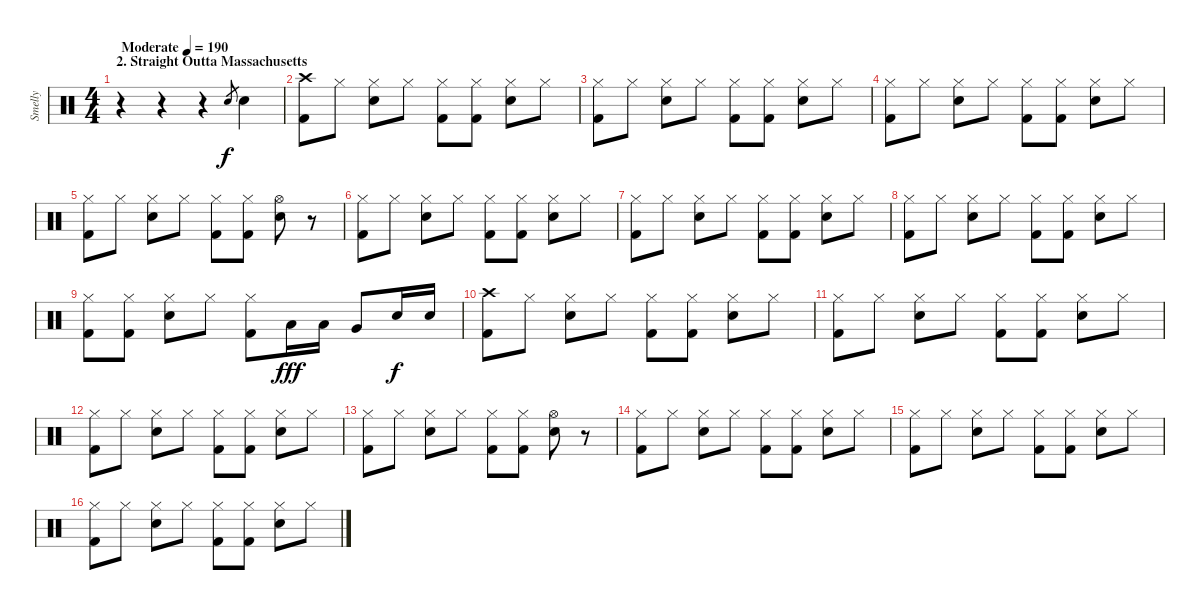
\track ("Smelly" "Smelly") {instrument percussion}
\staff {score}
\articulation defaults
\ts (4 4)
\section ("" "2. Straight Outta Massachusetts")
\tempo (190 "Moderate")
\clef neutral
\ks c
r.4{dy f} r.4 r.4 "Electric Snare (hit)".8{gr} "Electric Snare (hit)".4 |
("Crash high (hit)" "Kick (hit) 2").8 "Hi-Hat (closed)".8 ("Hi-Hat (closed)" "Electric Snare (hit)").8 "Hi-Hat (closed)".8 ("Hi-Hat (closed)" "Kick (hit) 2").8 ("Hi-Hat (closed)" "Kick (hit) 2").8 ("Hi-Hat (closed)" "Electric Snare (hit)").8 "Hi-Hat (closed)".8 |
("Hi-Hat (closed)" "Kick (hit) 2").8 "Hi-Hat (closed)".8 ("Hi-Hat (closed)" "Electric Snare (hit)").8 "Hi-Hat (closed)".8 ("Hi-Hat (closed)" "Kick (hit) 2").8 ("Hi-Hat (closed)" "Kick (hit) 2").8 ("Hi-Hat (closed)" "Electric Snare (hit)").8 "Hi-Hat (closed)".8 |
("Hi-Hat (closed)" "Kick (hit) 2").8 "Hi-Hat (closed)".8 ("Hi-Hat (closed)" "Electric Snare (hit)").8 "Hi-Hat (closed)".8 ("Hi-Hat (closed)" "Kick (hit) 2").8 ("Hi-Hat (closed)" "Kick (hit) 2").8 ("Hi-Hat (closed)" "Electric Snare (hit)").8 "Hi-Hat (closed)".8 |
("Hi-Hat (closed)" "Kick (hit) 2").8 "Hi-Hat (closed)".8 ("Hi-Hat (closed)" "Electric Snare (hit)").8 "Hi-Hat (closed)".8 ("Hi-Hat (closed)" "Kick (hit) 2").8 ("Hi-Hat (closed)" "Kick (hit) 2").8 ("Hi-Hat (open)" "Electric Snare (hit)").8 r.8 |
("Hi-Hat (closed)" "Kick (hit) 2").8 "Hi-Hat (closed)".8 ("Hi-Hat (closed)" "Electric Snare (hit)").8 "Hi-Hat (closed)".8 ("Hi-Hat (closed)" "Kick (hit) 2").8 ("Hi-Hat (closed)" "Kick (hit) 2").8 ("Hi-Hat (closed)" "Electric Snare (hit)").8 "Hi-Hat (closed)".8 |
("Hi-Hat (closed)" "Kick (hit) 2").8 "Hi-Hat (closed)".8 ("Hi-Hat (closed)" "Electric Snare (hit)").8 "Hi-Hat (closed)".8 ("Hi-Hat (closed)" "Kick (hit) 2").8 ("Hi-Hat (closed)" "Kick (hit) 2").8 ("Hi-Hat (closed)" "Electric Snare (hit)").8 "Hi-Hat (closed)".8 |
("Hi-Hat (closed)" "Kick (hit) 2").8 "Hi-Hat (closed)".8 ("Hi-Hat (closed)" "Electric Snare (hit)").8 "Hi-Hat (closed)".8 ("Hi-Hat (closed)" "Kick (hit) 2").8 ("Hi-Hat (closed)" "Kick (hit) 2").8 ("Hi-Hat (closed)" "Electric Snare (hit)").8 "Hi-Hat (closed)".8 |
("Hi-Hat (closed)" "Kick (hit) 2").8 ("Hi-Hat (closed)" "Kick (hit) 2").8 ("Hi-Hat (closed)" "Electric Snare (hit)").8 "Hi-Hat (closed)".8 ("Hi-Hat (closed)" "Kick (hit) 2").8 "Low Tom (hit)".16{dy fff} "Low Tom (hit)".16 "Very Low Tom (hit)".8 "Electric Snare (hit)".16{dy f} "Electric Snare (hit)".16 |
("Crash high (hit)" "Kick (hit) 2").8 "Hi-Hat (closed)".8 ("Hi-Hat (closed)" "Electric Snare (hit)").8 "Hi-Hat (closed)".8 ("Hi-Hat (closed)" "Kick (hit) 2").8 ("Hi-Hat (closed)" "Kick (hit) 2").8 ("Hi-Hat (closed)" "Electric Snare (hit)").8 "Hi-Hat (closed)".8 |
("Hi-Hat (closed)" "Kick (hit) 2").8 "Hi-Hat (closed)".8 ("Hi-Hat (closed)" "Electric Snare (hit)").8 "Hi-Hat (closed)".8 ("Hi-Hat (closed)" "Kick (hit) 2").8 ("Hi-Hat (closed)" "Kick (hit) 2").8 ("Hi-Hat (closed)" "Electric Snare (hit)").8 "Hi-Hat (closed)".8 |
("Hi-Hat (closed)" "Kick (hit) 2").8 "Hi-Hat (closed)".8 ("Hi-Hat (closed)" "Electric Snare (hit)").8 "Hi-Hat (closed)".8 ("Hi-Hat (closed)" "Kick (hit) 2").8 ("Hi-Hat (closed)" "Kick (hit) 2").8 ("Hi-Hat (closed)" "Electric Snare (hit)").8 "Hi-Hat (closed)".8 |
("Hi-Hat (closed)" "Kick (hit) 2").8 "Hi-Hat (closed)".8 ("Hi-Hat (closed)" "Electric Snare (hit)").8 "Hi-Hat (closed)".8 ("Hi-Hat (closed)" "Kick (hit) 2").8 ("Hi-Hat (closed)" "Kick (hit) 2").8 ("Hi-Hat (open)" "Electric Snare (hit)").8 r.8 |
("Hi-Hat (closed)" "Kick (hit) 2").8 "Hi-Hat (closed)".8 ("Hi-Hat (closed)" "Electric Snare (hit)").8 "Hi-Hat (closed)".8 ("Hi-Hat (closed)" "Kick (hit) 2").8 ("Hi-Hat (closed)" "Kick (hit) 2").8 ("Hi-Hat (closed)" "Electric Snare (hit)").8 "Hi-Hat (closed)".8 |
("Hi-Hat (closed)" "Kick (hit) 2").8 "Hi-Hat (closed)".8 ("Hi-Hat (closed)" "Electric Snare (hit)").8 "Hi-Hat (closed)".8 ("Hi-Hat (closed)" "Kick (hit) 2").8 ("Hi-Hat (closed)" "Kick (hit) 2").8 ("Hi-Hat (closed)" "Electric Snare (hit)").8 "Hi-Hat (closed)".8 |
("Hi-Hat (closed)" "Kick (hit) 2").8 "Hi-Hat (closed)".8 ("Hi-Hat (closed)" "Electric Snare (hit)").8 "Hi-Hat (closed)".8 ("Hi-Hat (closed)" "Kick (hit) 2").8 ("Hi-Hat (closed)" "Kick (hit) 2").8 ("Hi-Hat (closed)" "Electric Snare (hit)").8 "Hi-Hat (closed)".8
